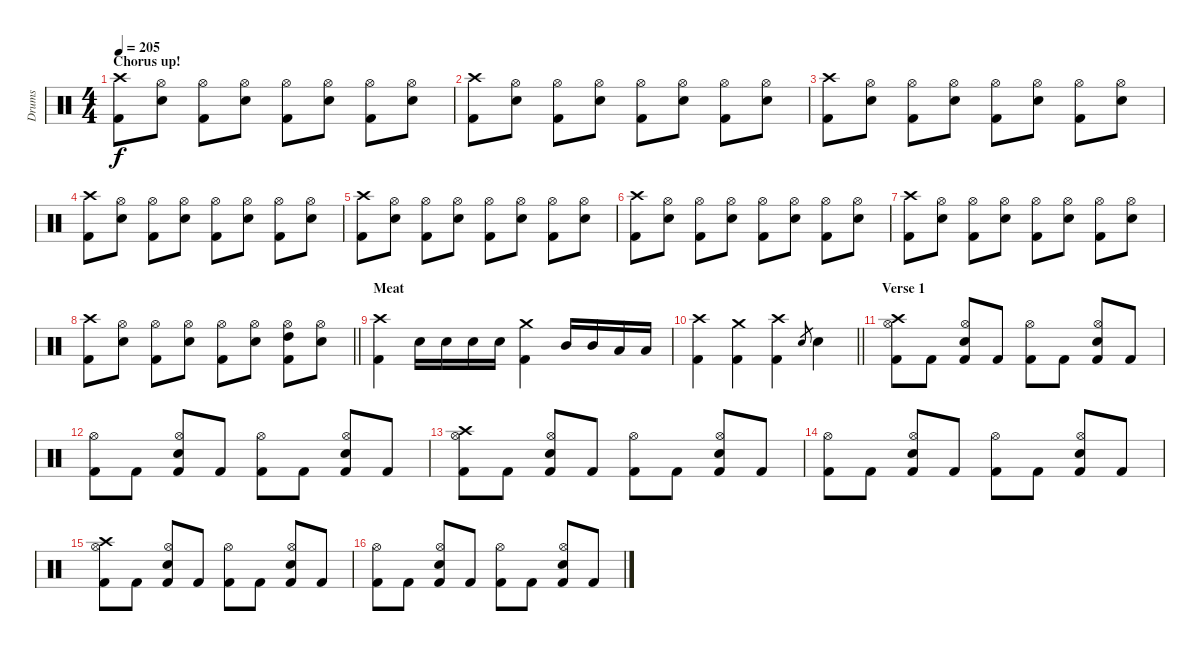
\track ("Drums" "Drums") {instrument percussion}
\staff {score}
\articulation defaults
\ts (4 4)
\section ("" "Chorus up!")
\tempo 205
\clef neutral
\ks c
("Crash high (hit)" "Kick (hit) 2").8{dy f} ("Hi-Hat (open)" "Snare (hit) 2").8 ("Hi-Hat (open)" "Kick (hit) 2").8 ("Hi-Hat (open)" "Snare (hit) 2").8 ("Hi-Hat (open)" "Kick (hit) 2").8 ("Hi-Hat (open)" "Snare (hit) 2").8 ("Hi-Hat (open)" "Kick (hit) 2").8 ("Hi-Hat (open)" "Snare (hit) 2").8 |
("Crash high (hit)" "Kick (hit) 2").8 ("Hi-Hat (open)" "Snare (hit) 2").8 ("Hi-Hat (open)" "Kick (hit) 2").8 ("Hi-Hat (open)" "Snare (hit) 2").8 ("Hi-Hat (open)" "Kick (hit) 2").8 ("Hi-Hat (open)" "Snare (hit) 2").8 ("Hi-Hat (open)" "Kick (hit) 2").8 ("Hi-Hat (open)" "Snare (hit) 2").8 |
("Crash high (hit)" "Kick (hit) 2").8 ("Hi-Hat (open)" "Snare (hit) 2").8 ("Hi-Hat (open)" "Kick (hit) 2").8 ("Hi-Hat (open)" "Snare (hit) 2").8 ("Hi-Hat (open)" "Kick (hit) 2").8 ("Hi-Hat (open)" "Snare (hit) 2").8 ("Hi-Hat (open)" "Kick (hit) 2").8 ("Hi-Hat (open)" "Snare (hit) 2").8 |
("Crash high (hit)" "Kick (hit) 2").8 ("Hi-Hat (open)" "Snare (hit) 2").8 ("Hi-Hat (open)" "Kick (hit) 2").8 ("Hi-Hat (open)" "Snare (hit) 2").8 ("Hi-Hat (open)" "Kick (hit) 2").8 ("Hi-Hat (open)" "Snare (hit) 2").8 ("Hi-Hat (open)" "Kick (hit) 2").8 ("Hi-Hat (open)" "Snare (hit) 2").8 |
("Crash high (hit)" "Kick (hit) 2").8 ("Hi-Hat (open)" "Snare (hit) 2").8 ("Hi-Hat (open)" "Kick (hit) 2").8 ("Hi-Hat (open)" "Snare (hit) 2").8 ("Hi-Hat (open)" "Kick (hit) 2").8 ("Hi-Hat (open)" "Snare (hit) 2").8 ("Hi-Hat (open)" "Kick (hit) 2").8 ("Hi-Hat (open)" "Snare (hit) 2").8 |
("Crash high (hit)" "Kick (hit) 2").8 ("Hi-Hat (open)" "Snare (hit) 2").8 ("Hi-Hat (open)" "Kick (hit) 2").8 ("Hi-Hat (open)" "Snare (hit) 2").8 ("Hi-Hat (open)" "Kick (hit) 2").8 ("Hi-Hat (open)" "Snare (hit) 2").8 ("Hi-Hat (open)" "Kick (hit) 2").8 ("Hi-Hat (open)" "Snare (hit) 2").8 |
("Crash high (hit)" "Kick (hit) 2").8 ("Hi-Hat (open)" "Snare (hit) 2").8 ("Hi-Hat (open)" "Kick (hit) 2").8 ("Hi-Hat (open)" "Snare (hit) 2").8 ("Hi-Hat (open)" "Kick (hit) 2").8 ("Hi-Hat (open)" "Snare (hit) 2").8 ("Hi-Hat (open)" "Kick (hit) 2").8 ("Hi-Hat (open)" "Snare (hit) 2").8 |
\barLineRight lightlight
("Crash high (hit)" "Kick (hit) 2").8 ("Hi-Hat (open)" "Snare (hit) 2").8 ("Hi-Hat (open)" "Kick (hit) 2").8 ("Hi-Hat (open)" "Snare (hit) 2").8 ("Hi-Hat (open)" "Kick (hit) 2").8 ("Hi-Hat (open)" "Snare (hit) 2").8 ("Hi-Hat (open)" "High Tom (hit)" "Kick (hit) 2").8 ("Hi-Hat (open)" "Snare (hit) 2").8 |
\section ("" "Meat")
("Crash high (hit)" "Kick (hit) 2").4 "Snare (hit) 2".16 "Snare (hit) 2".16 "Snare (hit) 2".16 "Snare (hit) 2".16 ("Crash medium (hit)" "Kick (hit) 2").4 "Mid Tom (hit)".16 "Mid Tom (hit)".16 "Low Tom (hit)".16 "Low Tom (hit)".16 |
\barLineRight lightlight
("Crash high (hit)" "Kick (hit) 2").4 ("Crash medium (hit)" "Kick (hit) 2").4 ("Crash high (hit)" "Kick (hit) 2").4 "Snare (hit) 2".8{gr} "Snare (hit) 2".4 |
\section ("" "Verse 1")
("Crash high (hit)" "Hi-Hat (open)" "Kick (hit) 2").8 "Kick (hit) 2".8 ("Hi-Hat (open)" "Snare (hit) 2" "Kick (hit) 2").8 "Kick (hit) 2".8 ("Hi-Hat (open)" "Kick (hit) 2").8 "Kick (hit) 2".8 ("Hi-Hat (open)" "Snare (hit) 2" "Kick (hit) 2").8 "Kick (hit) 2".8 |
("Hi-Hat (open)" "Kick (hit) 2").8 "Kick (hit) 2".8 ("Hi-Hat (open)" "Snare (hit) 2" "Kick (hit) 2").8 "Kick (hit) 2".8 ("Hi-Hat (open)" "Kick (hit) 2").8 "Kick (hit) 2".8 ("Hi-Hat (open)" "Snare (hit) 2" "Kick (hit) 2").8 "Kick (hit) 2".8 |
("Crash high (hit)" "Hi-Hat (open)" "Kick (hit) 2").8 "Kick (hit) 2".8 ("Hi-Hat (open)" "Snare (hit) 2" "Kick (hit) 2").8 "Kick (hit) 2".8 ("Hi-Hat (open)" "Kick (hit) 2").8 "Kick (hit) 2".8 ("Hi-Hat (open)" "Snare (hit) 2" "Kick (hit) 2").8 "Kick (hit) 2".8 |
("Hi-Hat (open)" "Kick (hit) 2").8 "Kick (hit) 2".8 ("Hi-Hat (open)" "Snare (hit) 2" "Kick (hit) 2").8 "Kick (hit) 2".8 ("Hi-Hat (open)" "Kick (hit) 2").8 "Kick (hit) 2".8 ("Hi-Hat (open)" "Snare (hit) 2" "Kick (hit) 2").8 "Kick (hit) 2".8 |
("Crash high (hit)" "Hi-Hat (open)" "Kick (hit) 2").8 "Kick (hit) 2".8 ("Hi-Hat (open)" "Snare (hit) 2" "Kick (hit) 2").8 "Kick (hit) 2".8 ("Hi-Hat (open)" "Kick (hit) 2").8 "Kick (hit) 2".8 ("Hi-Hat (open)" "Snare (hit) 2" "Kick (hit) 2").8 "Kick (hit) 2".8 |
("Hi-Hat (open)" "Kick (hit) 2").8 "Kick (hit) 2".8 ("Hi-Hat (open)" "Snare (hit) 2" "Kick (hit) 2").8 "Kick (hit) 2".8 ("Hi-Hat (open)" "Kick (hit) 2").8 "Kick (hit) 2".8 ("Hi-Hat (open)" "Snare (hit) 2" "Kick (hit) 2").8 "Kick (hit) 2".8
